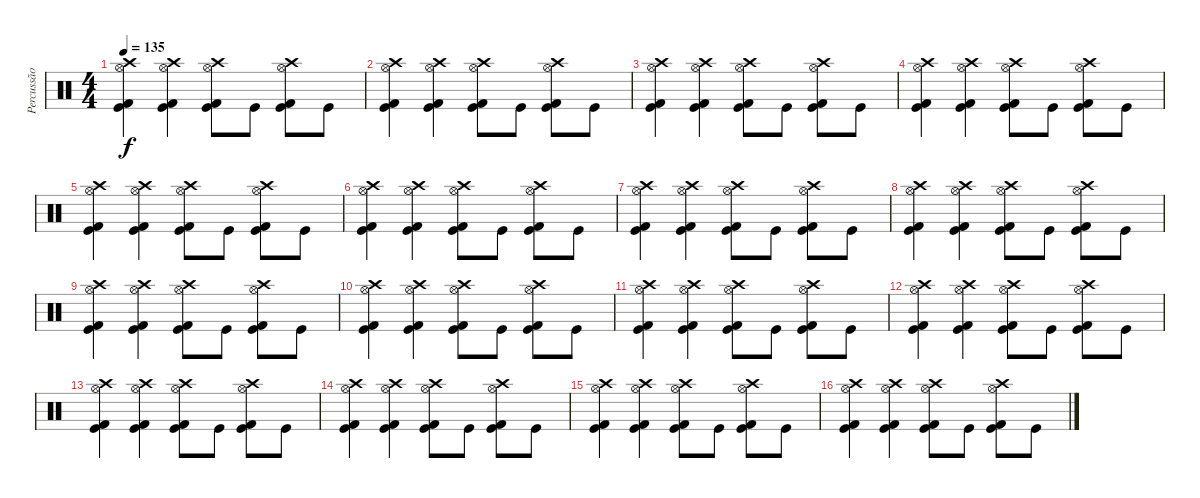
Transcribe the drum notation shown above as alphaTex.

\track ("Percussão" "Percussão") {instrument percussion}
\staff {score}
\articulation defaults
\ts (4 4)
\tempo 135
\clef neutral
\ks c
("Kick (hit)" "Hi-Hat (open)" "Kick (hit) 2" "Crash high (hit)").4{dy f} ("Kick (hit)" "Hi-Hat (open)" "Kick (hit) 2" "Crash high (hit)").4 ("Kick (hit)" "Hi-Hat (open)" "Kick (hit) 2" "Crash high (hit)").8 "Kick (hit)".8 ("Kick (hit)" "Hi-Hat (open)" "Kick (hit) 2" "Crash high (hit)").8 "Kick (hit)".8 |
("Kick (hit)" "Hi-Hat (open)" "Kick (hit) 2" "Crash high (hit)").4 ("Kick (hit)" "Hi-Hat (open)" "Kick (hit) 2" "Crash high (hit)").4 ("Kick (hit)" "Hi-Hat (open)" "Kick (hit) 2" "Crash high (hit)").8 "Kick (hit)".8 ("Kick (hit)" "Hi-Hat (open)" "Kick (hit) 2" "Crash high (hit)").8 "Kick (hit)".8 |
("Kick (hit)" "Hi-Hat (open)" "Kick (hit) 2" "Crash high (hit)").4 ("Kick (hit)" "Hi-Hat (open)" "Kick (hit) 2" "Crash high (hit)").4 ("Kick (hit)" "Hi-Hat (open)" "Kick (hit) 2" "Crash high (hit)").8 "Kick (hit)".8 ("Kick (hit)" "Hi-Hat (open)" "Kick (hit) 2" "Crash high (hit)").8 "Kick (hit)".8 |
("Kick (hit)" "Hi-Hat (open)" "Kick (hit) 2" "Crash high (hit)").4 ("Kick (hit)" "Hi-Hat (open)" "Kick (hit) 2" "Crash high (hit)").4 ("Kick (hit)" "Hi-Hat (open)" "Kick (hit) 2" "Crash high (hit)").8 "Kick (hit)".8 ("Kick (hit)" "Hi-Hat (open)" "Kick (hit) 2" "Crash high (hit)").8 "Kick (hit)".8 |
("Kick (hit)" "Hi-Hat (open)" "Kick (hit) 2" "Crash high (hit)").4 ("Kick (hit)" "Hi-Hat (open)" "Kick (hit) 2" "Crash high (hit)").4 ("Kick (hit)" "Hi-Hat (open)" "Kick (hit) 2" "Crash high (hit)").8 "Kick (hit)".8 ("Kick (hit)" "Hi-Hat (open)" "Kick (hit) 2" "Crash high (hit)").8 "Kick (hit)".8 |
("Kick (hit)" "Hi-Hat (open)" "Kick (hit) 2" "Crash high (hit)").4 ("Kick (hit)" "Hi-Hat (open)" "Kick (hit) 2" "Crash high (hit)").4 ("Kick (hit)" "Hi-Hat (open)" "Kick (hit) 2" "Crash high (hit)").8 "Kick (hit)".8 ("Kick (hit)" "Hi-Hat (open)" "Kick (hit) 2" "Crash high (hit)").8 "Kick (hit)".8 |
("Kick (hit)" "Hi-Hat (open)" "Kick (hit) 2" "Crash high (hit)").4 ("Kick (hit)" "Hi-Hat (open)" "Kick (hit) 2" "Crash high (hit)").4 ("Kick (hit)" "Hi-Hat (open)" "Kick (hit) 2" "Crash high (hit)").8 "Kick (hit)".8 ("Kick (hit)" "Hi-Hat (open)" "Kick (hit) 2" "Crash high (hit)").8 "Kick (hit)".8 |
("Kick (hit)" "Hi-Hat (open)" "Kick (hit) 2" "Crash high (hit)").4 ("Kick (hit)" "Hi-Hat (open)" "Kick (hit) 2" "Crash high (hit)").4 ("Kick (hit)" "Hi-Hat (open)" "Kick (hit) 2" "Crash high (hit)").8 "Kick (hit)".8 ("Kick (hit)" "Hi-Hat (open)" "Kick (hit) 2" "Crash high (hit)").8 "Kick (hit)".8 |
("Kick (hit)" "Hi-Hat (open)" "Kick (hit) 2" "Crash high (hit)").4 ("Kick (hit)" "Hi-Hat (open)" "Kick (hit) 2" "Crash high (hit)").4 ("Kick (hit)" "Hi-Hat (open)" "Kick (hit) 2" "Crash high (hit)").8 "Kick (hit)".8 ("Kick (hit)" "Hi-Hat (open)" "Kick (hit) 2" "Crash high (hit)").8 "Kick (hit)".8 |
("Kick (hit)" "Hi-Hat (open)" "Kick (hit) 2" "Crash high (hit)").4 ("Kick (hit)" "Hi-Hat (open)" "Kick (hit) 2" "Crash high (hit)").4 ("Kick (hit)" "Hi-Hat (open)" "Kick (hit) 2" "Crash high (hit)").8 "Kick (hit)".8 ("Kick (hit)" "Hi-Hat (open)" "Kick (hit) 2" "Crash high (hit)").8 "Kick (hit)".8 |
("Kick (hit)" "Hi-Hat (open)" "Kick (hit) 2" "Crash high (hit)").4 ("Kick (hit)" "Hi-Hat (open)" "Kick (hit) 2" "Crash high (hit)").4 ("Kick (hit)" "Hi-Hat (open)" "Kick (hit) 2" "Crash high (hit)").8 "Kick (hit)".8 ("Kick (hit)" "Hi-Hat (open)" "Kick (hit) 2" "Crash high (hit)").8 "Kick (hit)".8 |
("Kick (hit)" "Hi-Hat (open)" "Kick (hit) 2" "Crash high (hit)").4 ("Kick (hit)" "Hi-Hat (open)" "Kick (hit) 2" "Crash high (hit)").4 ("Kick (hit)" "Hi-Hat (open)" "Kick (hit) 2" "Crash high (hit)").8 "Kick (hit)".8 ("Kick (hit)" "Hi-Hat (open)" "Kick (hit) 2" "Crash high (hit)").8 "Kick (hit)".8 |
("Kick (hit)" "Hi-Hat (open)" "Kick (hit) 2" "Crash high (hit)").4 ("Kick (hit)" "Hi-Hat (open)" "Kick (hit) 2" "Crash high (hit)").4 ("Kick (hit)" "Hi-Hat (open)" "Kick (hit) 2" "Crash high (hit)").8 "Kick (hit)".8 ("Kick (hit)" "Hi-Hat (open)" "Kick (hit) 2" "Crash high (hit)").8 "Kick (hit)".8 |
("Kick (hit)" "Hi-Hat (open)" "Kick (hit) 2" "Crash high (hit)").4 ("Kick (hit)" "Hi-Hat (open)" "Kick (hit) 2" "Crash high (hit)").4 ("Kick (hit)" "Hi-Hat (open)" "Kick (hit) 2" "Crash high (hit)").8 "Kick (hit)".8 ("Kick (hit)" "Hi-Hat (open)" "Kick (hit) 2" "Crash high (hit)").8 "Kick (hit)".8 |
("Kick (hit)" "Hi-Hat (open)" "Kick (hit) 2" "Crash high (hit)").4 ("Kick (hit)" "Hi-Hat (open)" "Kick (hit) 2" "Crash high (hit)").4 ("Kick (hit)" "Hi-Hat (open)" "Kick (hit) 2" "Crash high (hit)").8 "Kick (hit)".8 ("Kick (hit)" "Hi-Hat (open)" "Kick (hit) 2" "Crash high (hit)").8 "Kick (hit)".8 |
("Kick (hit)" "Hi-Hat (open)" "Kick (hit) 2" "Crash high (hit)").4 ("Kick (hit)" "Hi-Hat (open)" "Kick (hit) 2" "Crash high (hit)").4 ("Kick (hit)" "Hi-Hat (open)" "Kick (hit) 2" "Crash high (hit)").8 "Kick (hit)".8 ("Kick (hit)" "Hi-Hat (open)" "Kick (hit) 2" "Crash high (hit)").8 "Kick (hit)".8
